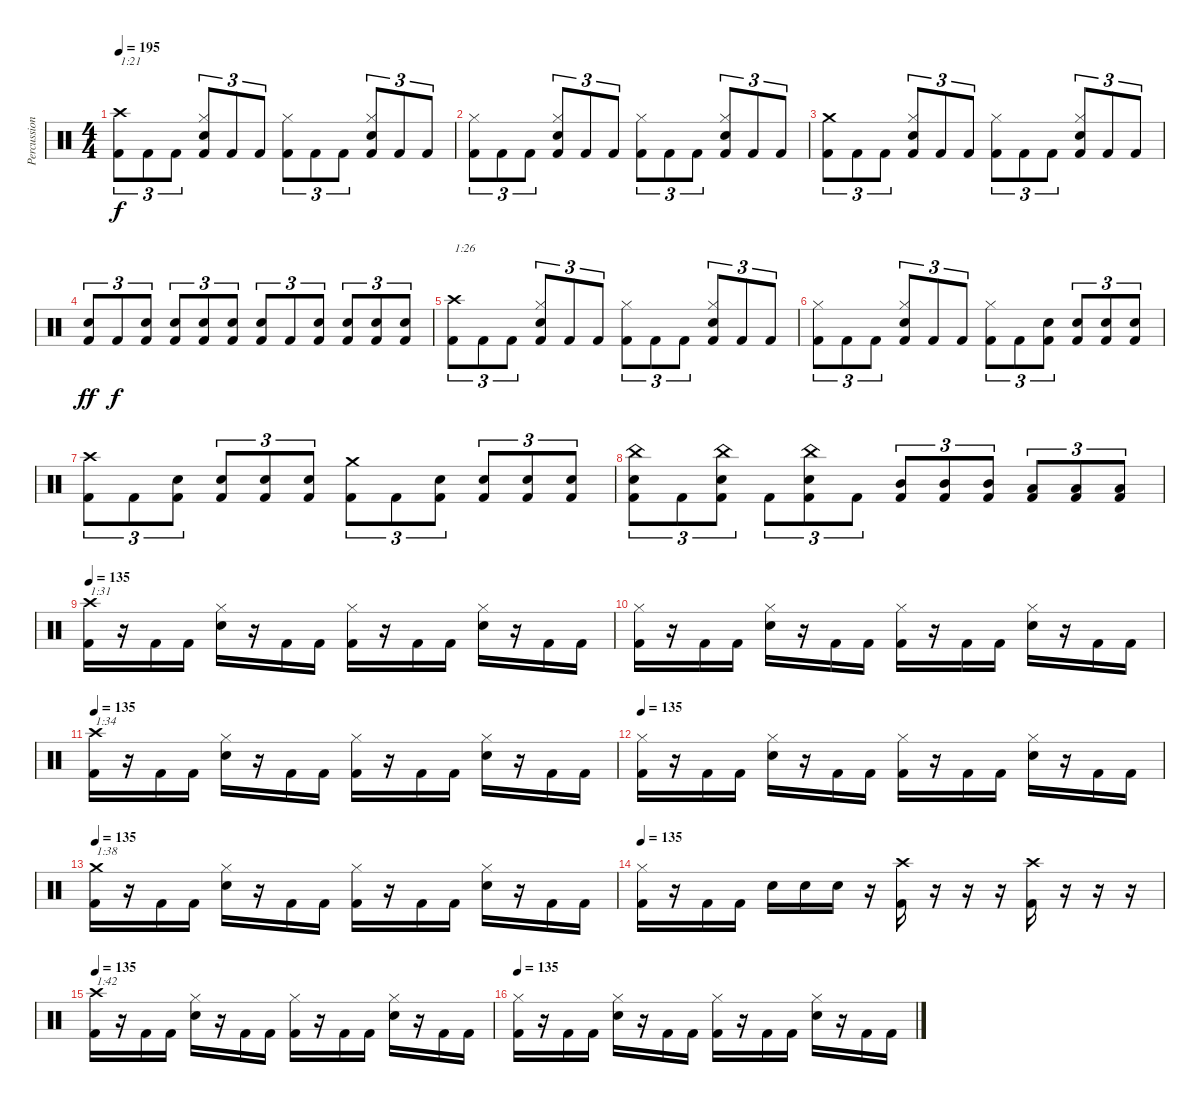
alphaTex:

\track ("Percussion" "Percussion") {instrument percussion}
\staff {score}
\articulation defaults
\ts (4 4)
\tempo 195
\clef neutral
\ks c
("Crash high (hit)" "Kick (hit) 2").8{tu (3 2) txt "1:21" dy f} "Kick (hit) 2".8{tu (3 2)} "Kick (hit) 2".8{tu (3 2)} ("Hi-Hat (closed)" "Snare (hit) 2" "Kick (hit) 2").8{tu (3 2)} "Kick (hit) 2".8{tu (3 2)} "Kick (hit) 2".8{tu (3 2)} ("Hi-Hat (closed)" "Kick (hit) 2").8{tu (3 2)} "Kick (hit) 2".8{tu (3 2)} "Kick (hit) 2".8{tu (3 2)} ("Hi-Hat (closed)" "Snare (hit) 2" "Kick (hit) 2").8{tu (3 2)} "Kick (hit) 2".8{tu (3 2)} "Kick (hit) 2".8{tu (3 2)} |
("Hi-Hat (closed)" "Kick (hit) 2").8{tu (3 2)} "Kick (hit) 2".8{tu (3 2)} "Kick (hit) 2".8{tu (3 2)} ("Hi-Hat (closed)" "Snare (hit) 2" "Kick (hit) 2").8{tu (3 2)} "Kick (hit) 2".8{tu (3 2)} "Kick (hit) 2".8{tu (3 2)} ("Hi-Hat (closed)" "Kick (hit) 2").8{tu (3 2)} "Kick (hit) 2".8{tu (3 2)} "Kick (hit) 2".8{tu (3 2)} ("Hi-Hat (closed)" "Snare (hit) 2" "Kick (hit) 2").8{tu (3 2)} "Kick (hit) 2".8{tu (3 2)} "Kick (hit) 2".8{tu (3 2)} |
("Crash medium (hit)" "Kick (hit) 2").8{tu (3 2)} "Kick (hit) 2".8{tu (3 2)} "Kick (hit) 2".8{tu (3 2)} ("Hi-Hat (closed)" "Snare (hit) 2" "Kick (hit) 2").8{tu (3 2)} "Kick (hit) 2".8{tu (3 2)} "Kick (hit) 2".8{tu (3 2)} ("Hi-Hat (closed)" "Kick (hit) 2").8{tu (3 2)} "Kick (hit) 2".8{tu (3 2)} "Kick (hit) 2".8{tu (3 2)} ("Hi-Hat (closed)" "Snare (hit) 2" "Kick (hit) 2").8{tu (3 2)} "Kick (hit) 2".8{tu (3 2)} "Kick (hit) 2".8{tu (3 2)} |
("Snare (hit) 2" "Kick (hit) 2").8{tu (3 2) dy ff} "Kick (hit) 2".8{tu (3 2) dy f} ("Snare (hit) 2" "Kick (hit) 2").8{tu (3 2)} ("Snare (hit) 2" "Kick (hit) 2").8{tu (3 2)} ("Snare (hit) 2" "Kick (hit) 2").8{tu (3 2)} ("Snare (hit) 2" "Kick (hit) 2").8{tu (3 2)} ("Snare (hit) 2" "Kick (hit) 2").8{tu (3 2)} "Kick (hit) 2".8{tu (3 2)} ("Snare (hit) 2" "Kick (hit) 2").8{tu (3 2)} ("Snare (hit) 2" "Kick (hit) 2").8{tu (3 2)} ("Snare (hit) 2" "Kick (hit) 2").8{tu (3 2)} ("Snare (hit) 2" "Kick (hit) 2").8{tu (3 2)} |
("Crash high (hit)" "Kick (hit) 2").8{tu (3 2) txt "1:26"} "Kick (hit) 2".8{tu (3 2)} "Kick (hit) 2".8{tu (3 2)} ("Hi-Hat (closed)" "Snare (hit) 2" "Kick (hit) 2").8{tu (3 2)} "Kick (hit) 2".8{tu (3 2)} "Kick (hit) 2".8{tu (3 2)} ("Hi-Hat (closed)" "Kick (hit) 2").8{tu (3 2)} "Kick (hit) 2".8{tu (3 2)} "Kick (hit) 2".8{tu (3 2)} ("Hi-Hat (closed)" "Snare (hit) 2" "Kick (hit) 2").8{tu (3 2)} "Kick (hit) 2".8{tu (3 2)} "Kick (hit) 2".8{tu (3 2)} |
("Hi-Hat (closed)" "Kick (hit) 2").8{tu (3 2)} "Kick (hit) 2".8{tu (3 2)} "Kick (hit) 2".8{tu (3 2)} ("Hi-Hat (closed)" "Snare (hit) 2" "Kick (hit) 2").8{tu (3 2)} "Kick (hit) 2".8{tu (3 2)} "Kick (hit) 2".8{tu (3 2)} ("Hi-Hat (closed)" "Kick (hit) 2").8{tu (3 2)} "Kick (hit) 2".8{tu (3 2)} ("Snare (hit) 2" "Kick (hit) 2").8{tu (3 2)} ("Snare (hit) 2" "Kick (hit) 2").8{tu (3 2)} ("Snare (hit) 2" "Kick (hit) 2").8{tu (3 2)} ("Snare (hit) 2" "Kick (hit) 2").8{tu (3 2)} |
("Crash high (hit)" "Kick (hit) 2").8{tu (3 2)} "Kick (hit) 2".8{tu (3 2)} ("Snare (hit) 2" "Kick (hit) 2").8{tu (3 2)} ("Snare (hit) 2" "Kick (hit) 2").8{tu (3 2)} ("Snare (hit) 2" "Kick (hit) 2").8{tu (3 2)} ("Snare (hit) 2" "Kick (hit) 2").8{tu (3 2)} ("Crash medium (hit)" "Kick (hit) 2").8{tu (3 2)} "Kick (hit) 2".8{tu (3 2)} ("Snare (hit) 2" "Kick (hit) 2").8{tu (3 2)} ("Snare (hit) 2" "Kick (hit) 2").8{tu (3 2)} ("Snare (hit) 2" "Kick (hit) 2").8{tu (3 2)} ("Snare (hit) 2" "Kick (hit) 2").8{tu (3 2)} |
("China (hit)" "Snare (hit) 2" "Kick (hit) 2").8{tu (3 2)} "Kick (hit) 2".8{tu (3 2)} ("China (hit)" "Snare (hit) 2" "Kick (hit) 2").8{tu (3 2)} "Kick (hit) 2".8{tu (3 2)} ("China (hit)" "Snare (hit) 2" "Kick (hit) 2").8{tu (3 2)} "Kick (hit) 2".8{tu (3 2)} ("Mid Tom (hit)" "Kick (hit) 2").8{tu (3 2)} ("Mid Tom (hit)" "Kick (hit) 2").8{tu (3 2)} ("Mid Tom (hit)" "Kick (hit) 2").8{tu (3 2)} ("Low Tom (hit)" "Kick (hit) 2").8{tu (3 2)} ("Low Tom (hit)" "Kick (hit) 2").8{tu (3 2)} ("Low Tom (hit)" "Kick (hit) 2").8{tu (3 2)} |
\tempo 135
("Crash high (hit)" "Kick (hit) 2").16{txt "1:31"} r.16 "Kick (hit) 2".16 "Kick (hit) 2".16 ("Hi-Hat (closed)" "Snare (hit) 2").16 r.16 "Kick (hit) 2".16 "Kick (hit) 2".16 ("Hi-Hat (closed)" "Kick (hit) 2").16 r.16 "Kick (hit) 2".16 "Kick (hit) 2".16 ("Hi-Hat (closed)" "Snare (hit) 2").16 r.16 "Kick (hit) 2".16 "Kick (hit) 2".16 |
("Hi-Hat (closed)" "Kick (hit) 2").16 r.16 "Kick (hit) 2".16 "Kick (hit) 2".16 ("Hi-Hat (closed)" "Snare (hit) 2").16 r.16 "Kick (hit) 2".16 "Kick (hit) 2".16 ("Hi-Hat (closed)" "Kick (hit) 2").16 r.16 "Kick (hit) 2".16 "Kick (hit) 2".16 ("Hi-Hat (closed)" "Snare (hit) 2").16 r.16 "Kick (hit) 2".16 "Kick (hit) 2".16 |
\tempo 135
("Crash high (hit)" "Kick (hit) 2").16{txt "1:34"} r.16 "Kick (hit) 2".16 "Kick (hit) 2".16 ("Hi-Hat (closed)" "Snare (hit) 2").16 r.16 "Kick (hit) 2".16 "Kick (hit) 2".16 ("Hi-Hat (closed)" "Kick (hit) 2").16 r.16 "Kick (hit) 2".16 "Kick (hit) 2".16 ("Hi-Hat (closed)" "Snare (hit) 2").16 r.16 "Kick (hit) 2".16 "Kick (hit) 2".16 |
\tempo 135
("Hi-Hat (closed)" "Kick (hit) 2").16 r.16 "Kick (hit) 2".16 "Kick (hit) 2".16 ("Hi-Hat (closed)" "Snare (hit) 2").16 r.16 "Kick (hit) 2".16 "Kick (hit) 2".16 ("Hi-Hat (closed)" "Kick (hit) 2").16 r.16 "Kick (hit) 2".16 "Kick (hit) 2".16 ("Hi-Hat (closed)" "Snare (hit) 2").16 r.16 "Kick (hit) 2".16 "Kick (hit) 2".16 |
\tempo 135
("Crash medium (hit)" "Kick (hit) 2").16{txt "1:38"} r.16 "Kick (hit) 2".16 "Kick (hit) 2".16 ("Hi-Hat (closed)" "Snare (hit) 2").16 r.16 "Kick (hit) 2".16 "Kick (hit) 2".16 ("Hi-Hat (closed)" "Kick (hit) 2").16 r.16 "Kick (hit) 2".16 "Kick (hit) 2".16 ("Hi-Hat (closed)" "Snare (hit) 2").16 r.16 "Kick (hit) 2".16 "Kick (hit) 2".16 |
\tempo 135
("Hi-Hat (closed)" "Kick (hit) 2").16 r.16 "Kick (hit) 2".16 "Kick (hit) 2".16 "Snare (hit) 2".16 "Snare (hit) 2".16 "Snare (hit) 2".16 r.16 ("Crash high (hit)" "Kick (hit) 2").16 r.16 r.16 r.16 ("Crash high (hit)" "Kick (hit) 2").16 r.16 r.16 r.16 |
\tempo 135
("Crash high (hit)" "Kick (hit) 2").16{txt "1:42"} r.16 "Kick (hit) 2".16 "Kick (hit) 2".16 ("Hi-Hat (closed)" "Snare (hit) 2").16 r.16 "Kick (hit) 2".16 "Kick (hit) 2".16 ("Hi-Hat (closed)" "Kick (hit) 2").16 r.16 "Kick (hit) 2".16 "Kick (hit) 2".16 ("Hi-Hat (closed)" "Snare (hit) 2").16 r.16 "Kick (hit) 2".16 "Kick (hit) 2".16 |
\tempo 135
("Hi-Hat (closed)" "Kick (hit) 2").16 r.16 "Kick (hit) 2".16 "Kick (hit) 2".16 ("Hi-Hat (closed)" "Snare (hit) 2").16 r.16 "Kick (hit) 2".16 "Kick (hit) 2".16 ("Hi-Hat (closed)" "Kick (hit) 2").16 r.16 "Kick (hit) 2".16 "Kick (hit) 2".16 ("Hi-Hat (closed)" "Snare (hit) 2").16 r.16 "Kick (hit) 2".16 "Kick (hit) 2".16
